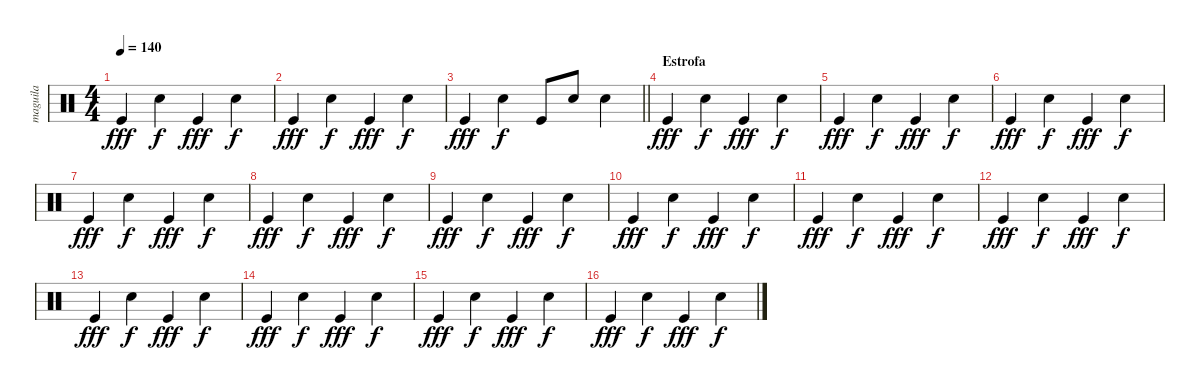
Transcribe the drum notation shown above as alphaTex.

\track ("maguila" "maguila") {instrument percussion}
\staff {score}
\articulation defaults
\ts (4 4)
\tempo 140
\clef neutral
\ks c "Kick (hit)".4{dy fff} "Snare (hit) 2".4{dy f} "Kick (hit)".4{dy fff} "Snare (hit) 2".4{dy f}
|
"Kick (hit)".4{dy fff} "Snare (hit) 2".4{dy f} "Kick (hit)".4{dy fff} "Snare (hit) 2".4{dy f} |
\barLineRight lightlight "Kick (hit)".4{dy fff} "Snare (hit) 2".4{dy f} "Kick (hit)".8 "Snare (hit) 2".8 "Snare (hit) 2".4
|
\section ("" "Estrofa")
"Kick (hit)".4{dy fff} "Snare (hit) 2".4{dy f} "Kick (hit)".4{dy fff} "Snare (hit) 2".4{dy f} |
"Kick (hit)".4{dy fff} "Snare (hit) 2".4{dy f} "Kick (hit)".4{dy fff} "Snare (hit) 2".4{dy f} |
"Kick (hit)".4{dy fff} "Snare (hit) 2".4{dy f} "Kick (hit)".4{dy fff} "Snare (hit) 2".4{dy f} |
"Kick (hit)".4{dy fff} "Snare (hit) 2".4{dy f} "Kick (hit)".4{dy fff} "Snare (hit) 2".4{dy f} |
"Kick (hit)".4{dy fff} "Snare (hit) 2".4{dy f} "Kick (hit)".4{dy fff} "Snare (hit) 2".4{dy f} |
"Kick (hit)".4{dy fff} "Snare (hit) 2".4{dy f} "Kick (hit)".4{dy fff} "Snare (hit) 2".4{dy f} |
"Kick (hit)".4{dy fff} "Snare (hit) 2".4{dy f} "Kick (hit)".4{dy fff} "Snare (hit) 2".4{dy f} |
"Kick (hit)".4{dy fff} "Snare (hit) 2".4{dy f} "Kick (hit)".4{dy fff} "Snare (hit) 2".4{dy f} |
"Kick (hit)".4{dy fff} "Snare (hit) 2".4{dy f} "Kick (hit)".4{dy fff} "Snare (hit) 2".4{dy f} |
"Kick (hit)".4{dy fff} "Snare (hit) 2".4{dy f} "Kick (hit)".4{dy fff} "Snare (hit) 2".4{dy f} |
"Kick (hit)".4{dy fff} "Snare (hit) 2".4{dy f} "Kick (hit)".4{dy fff} "Snare (hit) 2".4{dy f} |
"Kick (hit)".4{dy fff} "Snare (hit) 2".4{dy f} "Kick (hit)".4{dy fff} "Snare (hit) 2".4{dy f} |
"Kick (hit)".4{dy fff} "Snare (hit) 2".4{dy f} "Kick (hit)".4{dy fff} "Snare (hit) 2".4{dy f}
